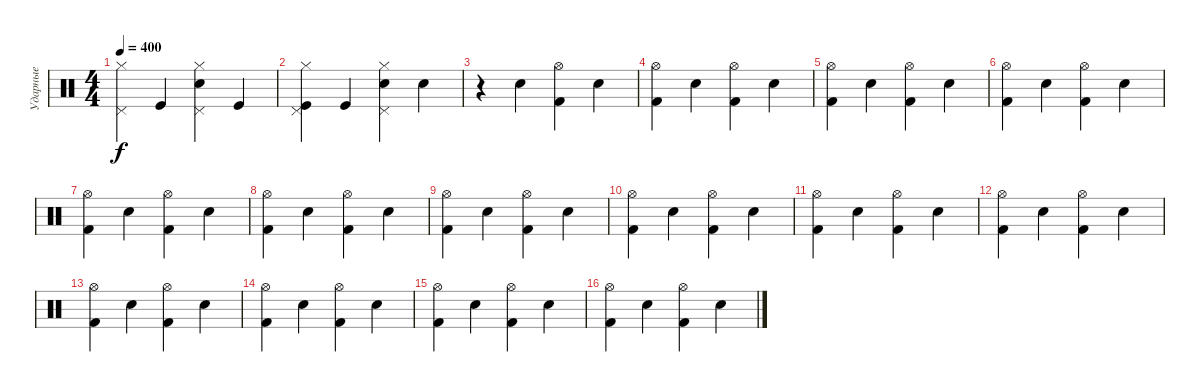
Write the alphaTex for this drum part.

\track ("Ударные" "Ударные") {instrument percussion}
\staff {score}
\articulation defaults
\ts (4 4)
\tempo 400
\clef neutral
\ks c
("Hi-Hat (closed)" "Pedal Hi-Hat (hit)").4{dy f} "Kick (hit)".4 ("Electric Snare (hit)" "Pedal Hi-Hat (hit)" "Hi-Hat (closed)").4 "Kick (hit)".4 |
("Kick (hit)" "Hi-Hat (closed)" "Pedal Hi-Hat (hit)").4 "Kick (hit)".4 ("Electric Snare (hit)" "Pedal Hi-Hat (hit)" "Hi-Hat (closed)").4 "Electric Snare (hit)".4 |
r.4 "Electric Snare (hit)".4 ("Kick (hit) 2" "Hi-Hat (open)").4 "Electric Snare (hit)".4 |
("Kick (hit) 2" "Hi-Hat (open)").4 "Electric Snare (hit)".4 ("Kick (hit) 2" "Hi-Hat (open)").4 "Electric Snare (hit)".4 |
("Kick (hit) 2" "Hi-Hat (open)").4 "Electric Snare (hit)".4 ("Kick (hit) 2" "Hi-Hat (open)").4 "Electric Snare (hit)".4 |
("Kick (hit) 2" "Hi-Hat (open)").4 "Electric Snare (hit)".4 ("Kick (hit) 2" "Hi-Hat (open)").4 "Electric Snare (hit)".4 |
("Kick (hit) 2" "Hi-Hat (open)").4 "Electric Snare (hit)".4 ("Kick (hit) 2" "Hi-Hat (open)").4 "Electric Snare (hit)".4 |
("Kick (hit) 2" "Hi-Hat (open)").4 "Electric Snare (hit)".4 ("Kick (hit) 2" "Hi-Hat (open)").4 "Electric Snare (hit)".4 |
("Kick (hit) 2" "Hi-Hat (open)").4 "Electric Snare (hit)".4 ("Kick (hit) 2" "Hi-Hat (open)").4 "Electric Snare (hit)".4 |
("Kick (hit) 2" "Hi-Hat (open)").4 "Electric Snare (hit)".4 ("Kick (hit) 2" "Hi-Hat (open)").4 "Electric Snare (hit)".4 |
("Kick (hit) 2" "Hi-Hat (open)").4 "Electric Snare (hit)".4 ("Kick (hit) 2" "Hi-Hat (open)").4 "Electric Snare (hit)".4 |
("Kick (hit) 2" "Hi-Hat (open)").4 "Electric Snare (hit)".4 ("Kick (hit) 2" "Hi-Hat (open)").4 "Electric Snare (hit)".4 |
("Kick (hit) 2" "Hi-Hat (open)").4 "Electric Snare (hit)".4 ("Kick (hit) 2" "Hi-Hat (open)").4 "Electric Snare (hit)".4 |
("Kick (hit) 2" "Hi-Hat (open)").4 "Electric Snare (hit)".4 ("Kick (hit) 2" "Hi-Hat (open)").4 "Electric Snare (hit)".4 |
("Kick (hit) 2" "Hi-Hat (open)").4 "Electric Snare (hit)".4 ("Kick (hit) 2" "Hi-Hat (open)").4 "Electric Snare (hit)".4 |
("Kick (hit) 2" "Hi-Hat (open)").4 "Electric Snare (hit)".4 ("Kick (hit) 2" "Hi-Hat (open)").4 "Electric Snare (hit)".4
